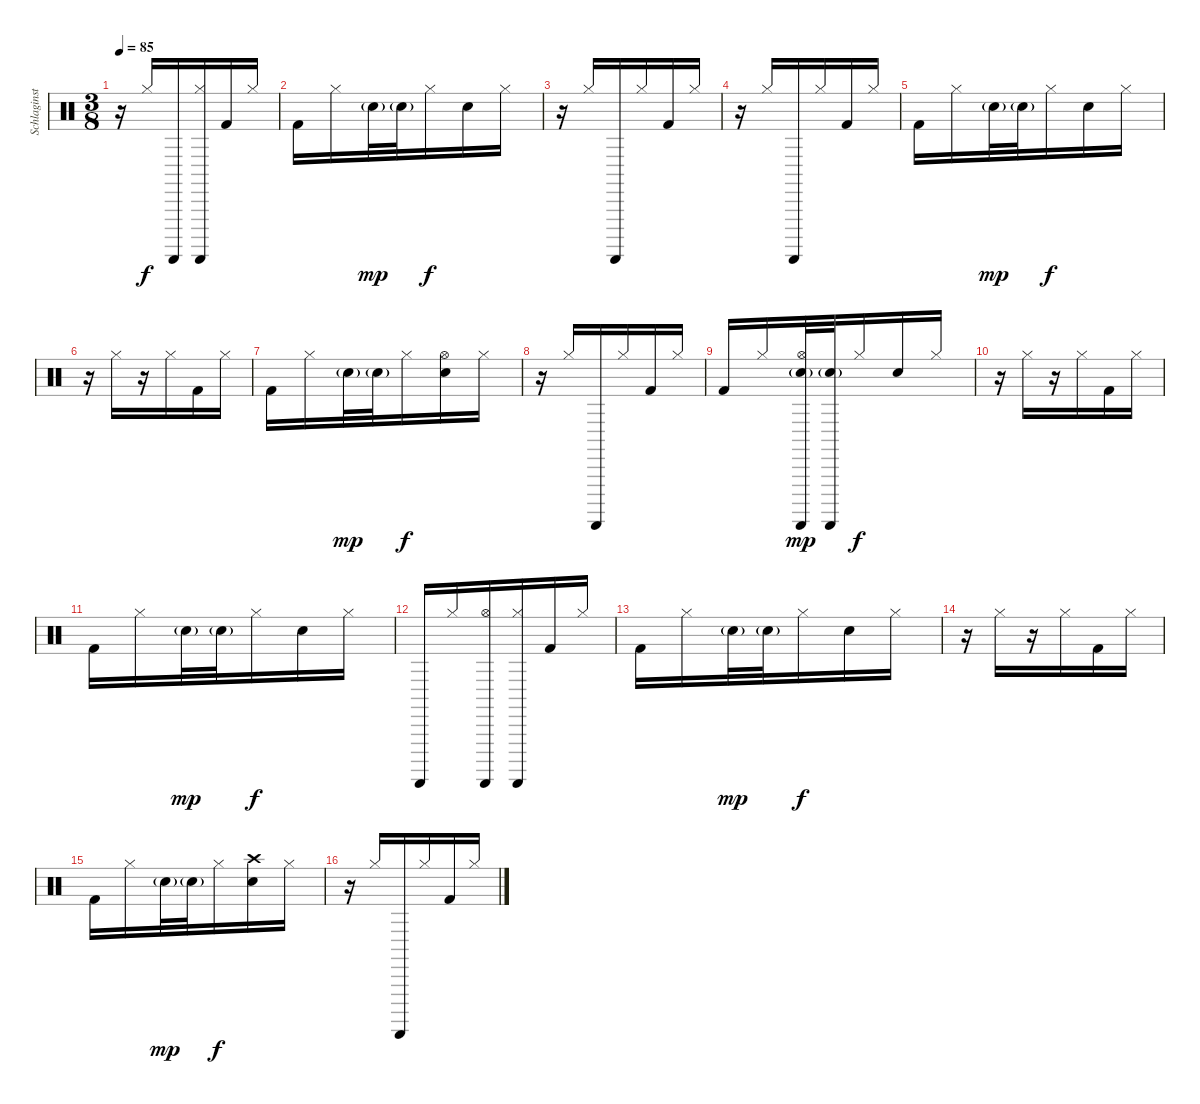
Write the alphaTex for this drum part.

\track ("Schlaginstrumente - Auswahl" "Schlaginst") {instrument percussion}
\staff {score}
\articulation defaults
\ts (3 8)
\tempo 85
\clef neutral
\ks c
r.16{dy f} "Hi-Hat (closed)".16 "Guiro (scrap-return)".16 ("Hi-Hat (closed)" "Guiro (scrap-return)").16 "Kick (hit) 2".16 "Hi-Hat (closed)".16 |
"Kick (hit) 2".16 "Hi-Hat (closed)".16 "Electric Snare (hit)"{g}.32{dy mp} "Electric Snare (hit)"{g}.32 "Hi-Hat (closed)".16{dy f} "Electric Snare (hit)".16 "Hi-Hat (closed)".16 |
r.16 "Hi-Hat (closed)".16 "Guiro (scrap-return)".16 "Hi-Hat (closed)".16 "Kick (hit) 2".16 "Hi-Hat (closed)".16 |
r.16 "Hi-Hat (closed)".16 "Guiro (scrap-return)".16 "Hi-Hat (closed)".16 "Kick (hit) 2".16 "Hi-Hat (closed)".16 |
"Kick (hit) 2".16 "Hi-Hat (closed)".16 "Electric Snare (hit)"{g}.32{dy mp} "Electric Snare (hit)"{g}.32 "Hi-Hat (closed)".16{dy f} "Electric Snare (hit)".16 "Hi-Hat (closed)".16 |
r.16 "Hi-Hat (closed)".16 r.16 "Hi-Hat (closed)".16 "Kick (hit) 2".16 "Hi-Hat (closed)".16 |
"Kick (hit) 2".16 "Hi-Hat (closed)".16 "Electric Snare (hit)"{g}.32{dy mp} "Electric Snare (hit)"{g}.32 "Hi-Hat (closed)".16{dy f} ("Hi-Hat (open)" "Electric Snare (hit)").16 "Hi-Hat (closed)".16 |
r.16 "Hi-Hat (closed)".16 "Guiro (scrap-return)".16 "Hi-Hat (closed)".16 "Kick (hit) 2".16 "Hi-Hat (closed)".16 |
"Kick (hit) 2".16 "Hi-Hat (closed)".16 ("Hi-Hat (open)" "Electric Snare (hit)"{g} "Guiro (scrap-return)").32{dy mp} ("Electric Snare (hit)"{g} "Guiro (scrap-return)").32 "Hi-Hat (closed)".16{dy f} "Electric Snare (hit)".16 "Hi-Hat (closed)".16 |
r.16 "Hi-Hat (closed)".16 r.16 "Hi-Hat (closed)".16 "Kick (hit) 2".16 "Hi-Hat (closed)".16 |
"Kick (hit) 2".16 "Hi-Hat (closed)".16 "Electric Snare (hit)"{g}.32{dy mp} "Electric Snare (hit)"{g}.32 "Hi-Hat (closed)".16{dy f} "Electric Snare (hit)".16 "Hi-Hat (closed)".16 |
"Guiro (scrap-return)".16 "Hi-Hat (closed)".16 ("Hi-Hat (open)" "Guiro (scrap-return)").16 ("Hi-Hat (closed)" "Guiro (scrap-return)").16 "Kick (hit) 2".16 "Hi-Hat (closed)".16 |
"Kick (hit) 2".16 "Hi-Hat (closed)".16 "Electric Snare (hit)"{g}.32{dy mp} "Electric Snare (hit)"{g}.32 "Hi-Hat (closed)".16{dy f} "Electric Snare (hit)".16 "Hi-Hat (closed)".16 |
r.16 "Hi-Hat (closed)".16 r.16 "Hi-Hat (closed)".16 "Kick (hit) 2".16 "Hi-Hat (closed)".16 |
"Kick (hit) 2".16 "Hi-Hat (closed)".16 "Electric Snare (hit)"{g}.32{dy mp} "Electric Snare (hit)"{g}.32 "Hi-Hat (closed)".16{dy f} ("Crash high (hit)" "Electric Snare (hit)").16 "Hi-Hat (closed)".16 |
r.16 "Hi-Hat (closed)".16 "Guiro (scrap-return)".16 "Hi-Hat (closed)".16 "Kick (hit) 2".16 "Hi-Hat (closed)".16
